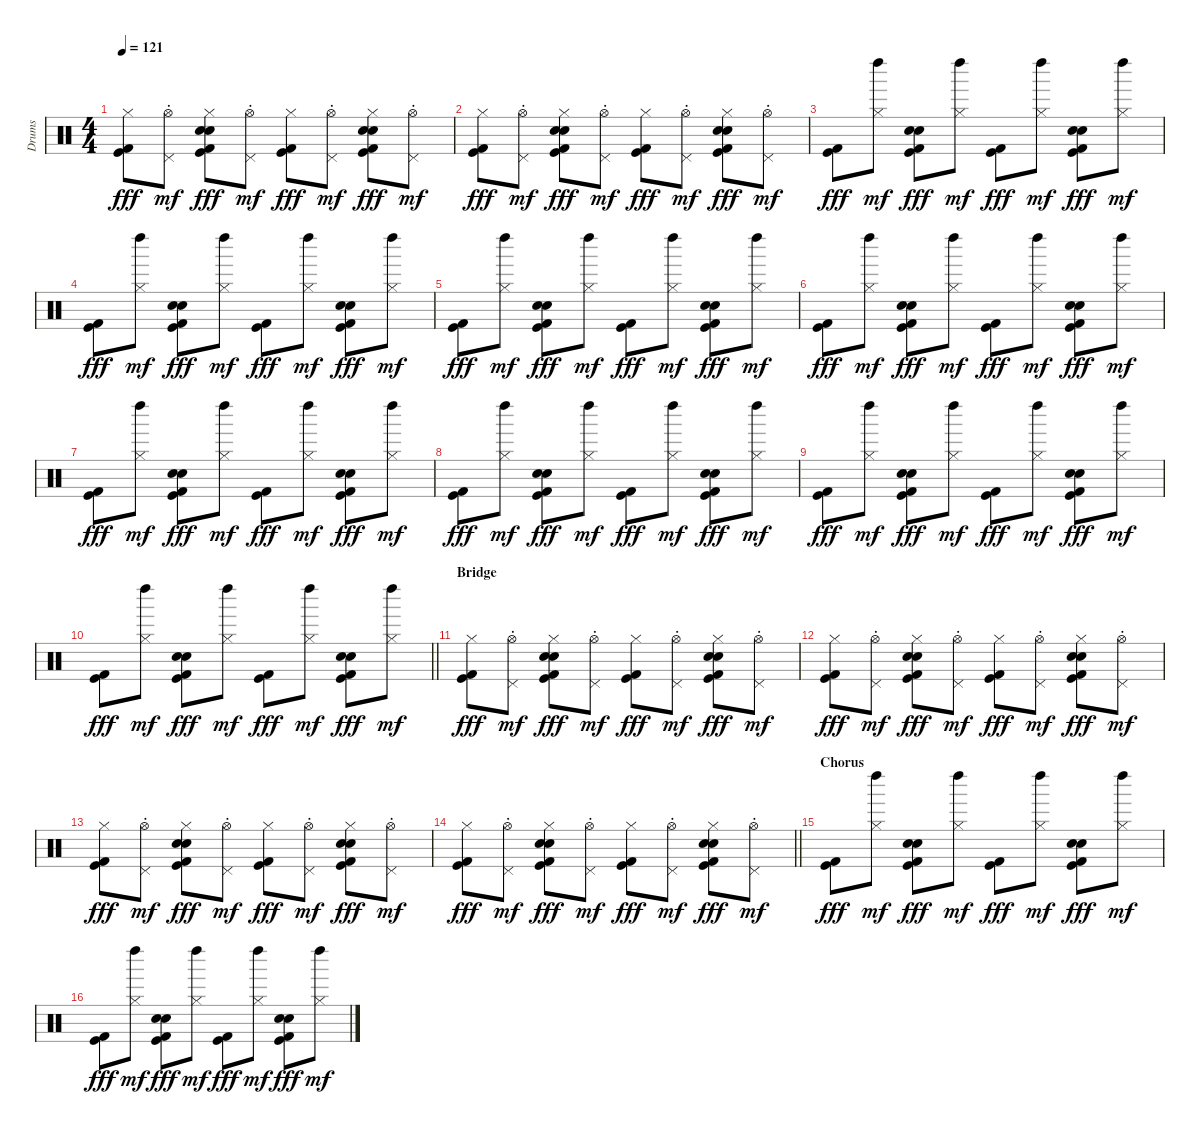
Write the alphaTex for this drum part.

\track ("Drums" "Drums") {instrument percussion}
\staff {score}
\articulation defaults
\ts (4 4)
\tempo 121
\clef neutral
\ks c
("Hi-Hat (closed)" "Kick (hit)" "Kick (hit) 2").8{dy fff} ("Pedal Hi-Hat (hit)"{st} "Hi-Hat (open)"{st}).8{dy mf} ("Hi-Hat (closed)" "Hand Clap (hit)" "Snare (hit) 2" "Kick (hit)" "Kick (hit) 2").8{dy fff} ("Pedal Hi-Hat (hit)"{st} "Hi-Hat (open)"{st}).8{dy mf} ("Hi-Hat (closed)" "Kick (hit)" "Kick (hit) 2").8{dy fff} ("Pedal Hi-Hat (hit)"{st} "Hi-Hat (open)"{st}).8{dy mf} ("Hi-Hat (closed)" "Hand Clap (hit)" "Snare (hit) 2" "Kick (hit)" "Kick (hit) 2").8{dy fff} ("Pedal Hi-Hat (hit)"{st} "Hi-Hat (open)"{st}).8{dy mf} |
("Hi-Hat (closed)" "Kick (hit)" "Kick (hit) 2").8{dy fff} ("Pedal Hi-Hat (hit)"{st} "Hi-Hat (open)"{st}).8{dy mf} ("Hi-Hat (closed)" "Hand Clap (hit)" "Snare (hit) 2" "Kick (hit)" "Kick (hit) 2").8{dy fff} ("Pedal Hi-Hat (hit)"{st} "Hi-Hat (open)"{st}).8{dy mf} ("Hi-Hat (closed)" "Kick (hit)" "Kick (hit) 2").8{dy fff} ("Pedal Hi-Hat (hit)"{st} "Hi-Hat (open)"{st}).8{dy mf} ("Hi-Hat (closed)" "Hand Clap (hit)" "Snare (hit) 2" "Kick (hit)" "Kick (hit) 2").8{dy fff} ("Pedal Hi-Hat (hit)"{st} "Hi-Hat (open)"{st}).8{dy mf} |
("Kick (hit)" "Kick (hit) 2").8{dy fff} ("Left Maraca (hit)" "Hi-Hat (closed)").8{dy mf} ("Hand Clap (hit)" "Snare (hit) 2" "Kick (hit)" "Kick (hit) 2").8{dy fff} ("Left Maraca (hit)" "Hi-Hat (closed)").8{dy mf} ("Kick (hit)" "Kick (hit) 2").8{dy fff} ("Left Maraca (hit)" "Hi-Hat (closed)").8{dy mf} ("Hand Clap (hit)" "Snare (hit) 2" "Kick (hit)" "Kick (hit) 2").8{dy fff} ("Left Maraca (hit)" "Hi-Hat (closed)").8{dy mf} |
("Kick (hit)" "Kick (hit) 2").8{dy fff} ("Left Maraca (hit)" "Hi-Hat (closed)").8{dy mf} ("Hand Clap (hit)" "Snare (hit) 2" "Kick (hit)" "Kick (hit) 2").8{dy fff} ("Left Maraca (hit)" "Hi-Hat (closed)").8{dy mf} ("Kick (hit)" "Kick (hit) 2").8{dy fff} ("Left Maraca (hit)" "Hi-Hat (closed)").8{dy mf} ("Hand Clap (hit)" "Snare (hit) 2" "Kick (hit)" "Kick (hit) 2").8{dy fff} ("Left Maraca (hit)" "Hi-Hat (closed)").8{dy mf} |
("Kick (hit)" "Kick (hit) 2").8{dy fff} ("Left Maraca (hit)" "Hi-Hat (closed)").8{dy mf} ("Hand Clap (hit)" "Snare (hit) 2" "Kick (hit)" "Kick (hit) 2").8{dy fff} ("Left Maraca (hit)" "Hi-Hat (closed)").8{dy mf} ("Kick (hit)" "Kick (hit) 2").8{dy fff} ("Left Maraca (hit)" "Hi-Hat (closed)").8{dy mf} ("Hand Clap (hit)" "Snare (hit) 2" "Kick (hit)" "Kick (hit) 2").8{dy fff} ("Left Maraca (hit)" "Hi-Hat (closed)").8{dy mf} |
("Kick (hit)" "Kick (hit) 2").8{dy fff} ("Left Maraca (hit)" "Hi-Hat (closed)").8{dy mf} ("Hand Clap (hit)" "Snare (hit) 2" "Kick (hit)" "Kick (hit) 2").8{dy fff} ("Left Maraca (hit)" "Hi-Hat (closed)").8{dy mf} ("Kick (hit)" "Kick (hit) 2").8{dy fff} ("Left Maraca (hit)" "Hi-Hat (closed)").8{dy mf} ("Hand Clap (hit)" "Snare (hit) 2" "Kick (hit)" "Kick (hit) 2").8{dy fff} ("Left Maraca (hit)" "Hi-Hat (closed)").8{dy mf} |
("Kick (hit)" "Kick (hit) 2").8{dy fff} ("Left Maraca (hit)" "Hi-Hat (closed)").8{dy mf} ("Hand Clap (hit)" "Snare (hit) 2" "Kick (hit)" "Kick (hit) 2").8{dy fff} ("Left Maraca (hit)" "Hi-Hat (closed)").8{dy mf} ("Kick (hit)" "Kick (hit) 2").8{dy fff} ("Left Maraca (hit)" "Hi-Hat (closed)").8{dy mf} ("Hand Clap (hit)" "Snare (hit) 2" "Kick (hit)" "Kick (hit) 2").8{dy fff} ("Left Maraca (hit)" "Hi-Hat (closed)").8{dy mf} |
("Kick (hit)" "Kick (hit) 2").8{dy fff} ("Left Maraca (hit)" "Hi-Hat (closed)").8{dy mf} ("Hand Clap (hit)" "Snare (hit) 2" "Kick (hit)" "Kick (hit) 2").8{dy fff} ("Left Maraca (hit)" "Hi-Hat (closed)").8{dy mf} ("Kick (hit)" "Kick (hit) 2").8{dy fff} ("Left Maraca (hit)" "Hi-Hat (closed)").8{dy mf} ("Hand Clap (hit)" "Snare (hit) 2" "Kick (hit)" "Kick (hit) 2").8{dy fff} ("Left Maraca (hit)" "Hi-Hat (closed)").8{dy mf} |
("Kick (hit)" "Kick (hit) 2").8{dy fff} ("Left Maraca (hit)" "Hi-Hat (closed)").8{dy mf} ("Hand Clap (hit)" "Snare (hit) 2" "Kick (hit)" "Kick (hit) 2").8{dy fff} ("Left Maraca (hit)" "Hi-Hat (closed)").8{dy mf} ("Kick (hit)" "Kick (hit) 2").8{dy fff} ("Left Maraca (hit)" "Hi-Hat (closed)").8{dy mf} ("Hand Clap (hit)" "Snare (hit) 2" "Kick (hit)" "Kick (hit) 2").8{dy fff} ("Left Maraca (hit)" "Hi-Hat (closed)").8{dy mf} |
\barLineRight lightlight
("Kick (hit)" "Kick (hit) 2").8{dy fff} ("Left Maraca (hit)" "Hi-Hat (closed)").8{dy mf} ("Hand Clap (hit)" "Snare (hit) 2" "Kick (hit)" "Kick (hit) 2").8{dy fff} ("Left Maraca (hit)" "Hi-Hat (closed)").8{dy mf} ("Kick (hit)" "Kick (hit) 2").8{dy fff} ("Left Maraca (hit)" "Hi-Hat (closed)").8{dy mf} ("Hand Clap (hit)" "Snare (hit) 2" "Kick (hit)" "Kick (hit) 2").8{dy fff} ("Left Maraca (hit)" "Hi-Hat (closed)").8{dy mf} |
\section ("" "Bridge")
("Hi-Hat (closed)" "Kick (hit)" "Kick (hit) 2").8{dy fff} ("Pedal Hi-Hat (hit)"{st} "Hi-Hat (open)"{st}).8{dy mf} ("Hi-Hat (closed)" "Hand Clap (hit)" "Snare (hit) 2" "Kick (hit)" "Kick (hit) 2").8{dy fff} ("Pedal Hi-Hat (hit)"{st} "Hi-Hat (open)"{st}).8{dy mf} ("Hi-Hat (closed)" "Kick (hit)" "Kick (hit) 2").8{dy fff} ("Pedal Hi-Hat (hit)"{st} "Hi-Hat (open)"{st}).8{dy mf} ("Hi-Hat (closed)" "Hand Clap (hit)" "Snare (hit) 2" "Kick (hit)" "Kick (hit) 2").8{dy fff} ("Pedal Hi-Hat (hit)"{st} "Hi-Hat (open)"{st}).8{dy mf} |
("Hi-Hat (closed)" "Kick (hit)" "Kick (hit) 2").8{dy fff} ("Pedal Hi-Hat (hit)"{st} "Hi-Hat (open)"{st}).8{dy mf} ("Hi-Hat (closed)" "Hand Clap (hit)" "Snare (hit) 2" "Kick (hit)" "Kick (hit) 2").8{dy fff} ("Pedal Hi-Hat (hit)"{st} "Hi-Hat (open)"{st}).8{dy mf} ("Hi-Hat (closed)" "Kick (hit)" "Kick (hit) 2").8{dy fff} ("Pedal Hi-Hat (hit)"{st} "Hi-Hat (open)"{st}).8{dy mf} ("Hi-Hat (closed)" "Hand Clap (hit)" "Snare (hit) 2" "Kick (hit)" "Kick (hit) 2").8{dy fff} ("Pedal Hi-Hat (hit)"{st} "Hi-Hat (open)"{st}).8{dy mf} |
("Hi-Hat (closed)" "Kick (hit)" "Kick (hit) 2").8{dy fff} ("Pedal Hi-Hat (hit)"{st} "Hi-Hat (open)"{st}).8{dy mf} ("Hi-Hat (closed)" "Hand Clap (hit)" "Snare (hit) 2" "Kick (hit)" "Kick (hit) 2").8{dy fff} ("Pedal Hi-Hat (hit)"{st} "Hi-Hat (open)"{st}).8{dy mf} ("Hi-Hat (closed)" "Kick (hit)" "Kick (hit) 2").8{dy fff} ("Pedal Hi-Hat (hit)"{st} "Hi-Hat (open)"{st}).8{dy mf} ("Hi-Hat (closed)" "Hand Clap (hit)" "Snare (hit) 2" "Kick (hit)" "Kick (hit) 2").8{dy fff} ("Pedal Hi-Hat (hit)"{st} "Hi-Hat (open)"{st}).8{dy mf} |
\barLineRight lightlight
("Hi-Hat (closed)" "Kick (hit)" "Kick (hit) 2").8{dy fff} ("Pedal Hi-Hat (hit)"{st} "Hi-Hat (open)"{st}).8{dy mf} ("Hi-Hat (closed)" "Hand Clap (hit)" "Snare (hit) 2" "Kick (hit)" "Kick (hit) 2").8{dy fff} ("Pedal Hi-Hat (hit)"{st} "Hi-Hat (open)"{st}).8{dy mf} ("Hi-Hat (closed)" "Kick (hit)" "Kick (hit) 2").8{dy fff} ("Pedal Hi-Hat (hit)"{st} "Hi-Hat (open)"{st}).8{dy mf} ("Hi-Hat (closed)" "Hand Clap (hit)" "Snare (hit) 2" "Kick (hit)" "Kick (hit) 2").8{dy fff} ("Pedal Hi-Hat (hit)"{st} "Hi-Hat (open)"{st}).8{dy mf} |
\section ("" "Chorus")
("Kick (hit)" "Kick (hit) 2").8{dy fff} ("Left Maraca (hit)" "Hi-Hat (closed)").8{dy mf} ("Hand Clap (hit)" "Snare (hit) 2" "Kick (hit)" "Kick (hit) 2").8{dy fff} ("Left Maraca (hit)" "Hi-Hat (closed)").8{dy mf} ("Kick (hit)" "Kick (hit) 2").8{dy fff} ("Left Maraca (hit)" "Hi-Hat (closed)").8{dy mf} ("Hand Clap (hit)" "Snare (hit) 2" "Kick (hit)" "Kick (hit) 2").8{dy fff} ("Left Maraca (hit)" "Hi-Hat (closed)").8{dy mf} |
("Kick (hit)" "Kick (hit) 2").8{dy fff} ("Left Maraca (hit)" "Hi-Hat (closed)").8{dy mf} ("Hand Clap (hit)" "Snare (hit) 2" "Kick (hit)" "Kick (hit) 2").8{dy fff} ("Left Maraca (hit)" "Hi-Hat (closed)").8{dy mf} ("Kick (hit)" "Kick (hit) 2").8{dy fff} ("Left Maraca (hit)" "Hi-Hat (closed)").8{dy mf} ("Hand Clap (hit)" "Snare (hit) 2" "Kick (hit)" "Kick (hit) 2").8{dy fff} ("Left Maraca (hit)" "Hi-Hat (closed)").8{dy mf}
